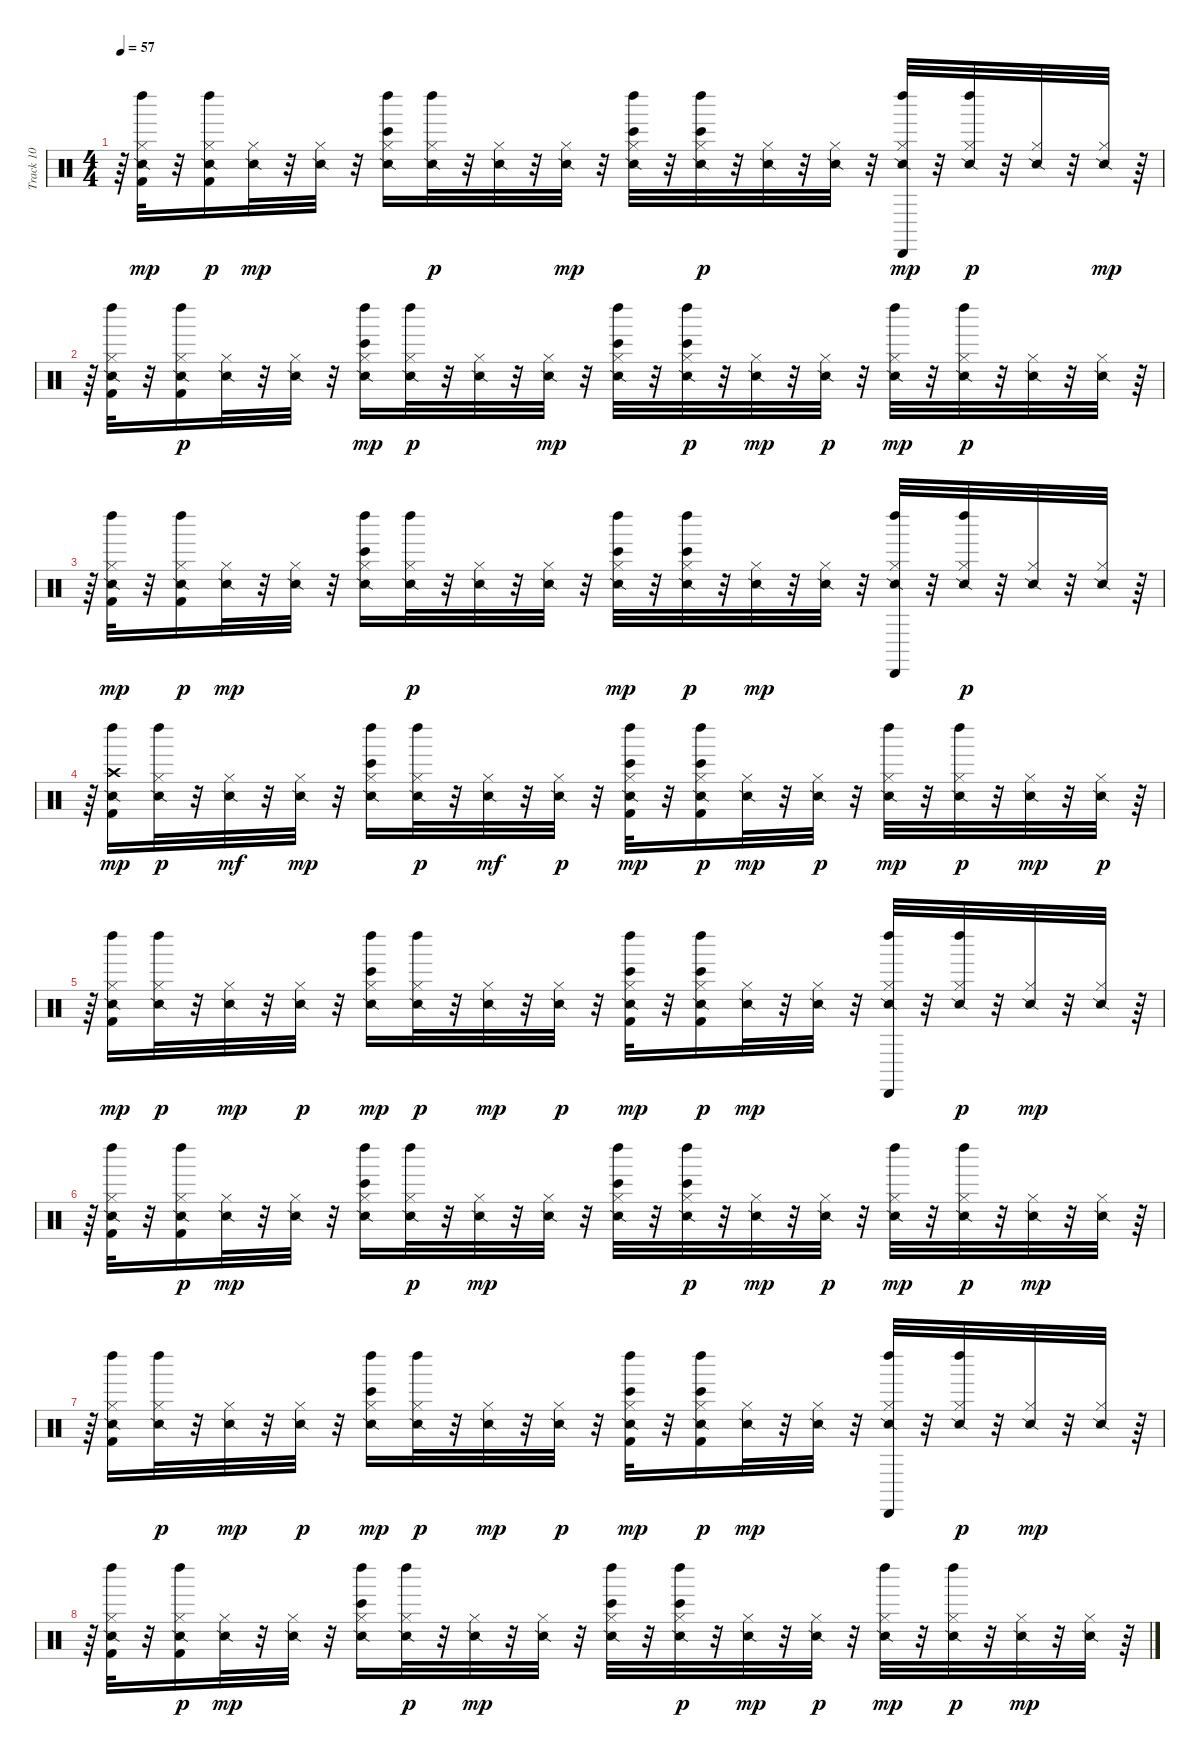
\track ("Track 10" "Track 10") {instrument percussion}
\staff {score}
\articulation defaults
\ts (4 4)
\tempo 57
\clef neutral
\ks c
r.64{dy mp} ("Snare (side stick) 2" "Kick (hit) 2" "Hi-Hat (closed)" "Left Maraca (hit)").32 r.32 ("Snare (side stick) 2" "Kick (hit) 2" "Hi-Hat (closed)" "Left Maraca (hit)").16{dy p} ("Snare (side stick) 2" "Hi-Hat (closed)").32{dy mp} r.32 ("Snare (side stick) 2" "Hi-Hat (closed)").32 r.32 ("Bongo High (hit)" "Snare (side stick) 2" "Hi-Hat (closed)" "Left Maraca (hit)").16 ("Snare (side stick) 2" "Hi-Hat (closed)" "Left Maraca (hit)").32{dy p} r.32 ("Snare (side stick) 2" "Hi-Hat (closed)").32 r.32 ("Snare (side stick) 2" "Hi-Hat (closed)").32{dy mp} r.32 ("Bongo High (hit)" "Snare (side stick) 2" "Hi-Hat (closed)" "Left Maraca (hit)").32 r.32 ("Bongo High (hit)" "Snare (side stick) 2" "Hi-Hat (closed)" "Left Maraca (hit)").32{dy p} r.32 ("Snare (side stick) 2" "Hi-Hat (closed)").32 r.32 ("Snare (side stick) 2" "Hi-Hat (closed)").32 r.32 ("Snare (side stick) 2" "Hi-Hat (closed)" "Left Maraca (hit)" "Cabasa (hit)").32{dy mp} r.32 ("Snare (side stick) 2" "Hi-Hat (closed)" "Left Maraca (hit)").32{dy p} r.32 ("Snare (side stick) 2" "Hi-Hat (closed)").32 r.32 ("Snare (side stick) 2" "Hi-Hat (closed)").32{dy mp} r.64 |
r.64 ("Snare (side stick) 2" "Kick (hit) 2" "Hi-Hat (closed)" "Left Maraca (hit)").32 r.32 ("Snare (side stick) 2" "Kick (hit) 2" "Hi-Hat (closed)" "Left Maraca (hit)").16{dy p} ("Snare (side stick) 2" "Hi-Hat (closed)").32 r.32 ("Snare (side stick) 2" "Hi-Hat (closed)").32 r.32 ("Bongo High (hit)" "Snare (side stick) 2" "Hi-Hat (closed)" "Left Maraca (hit)").16{dy mp} ("Snare (side stick) 2" "Hi-Hat (closed)" "Left Maraca (hit)").32{dy p} r.32 ("Snare (side stick) 2" "Hi-Hat (closed)").32 r.32 ("Snare (side stick) 2" "Hi-Hat (closed)").32{dy mp} r.32 ("Bongo High (hit)" "Snare (side stick) 2" "Hi-Hat (closed)" "Left Maraca (hit)").32 r.32 ("Bongo High (hit)" "Snare (side stick) 2" "Hi-Hat (closed)" "Left Maraca (hit)").32{dy p} r.32 ("Snare (side stick) 2" "Hi-Hat (closed)").32{dy mp} r.32 ("Snare (side stick) 2" "Hi-Hat (closed)").32{dy p} r.32 ("Snare (side stick) 2" "Hi-Hat (closed)" "Left Maraca (hit)").32{dy mp} r.32 ("Snare (side stick) 2" "Hi-Hat (closed)" "Left Maraca (hit)").32{dy p} r.32 ("Snare (side stick) 2" "Hi-Hat (closed)").32 r.32 ("Snare (side stick) 2" "Hi-Hat (closed)").32 r.64 |
r.64 ("Snare (side stick) 2" "Kick (hit) 2" "Hi-Hat (closed)" "Left Maraca (hit)").32{dy mp} r.32 ("Snare (side stick) 2" "Kick (hit) 2" "Hi-Hat (closed)" "Left Maraca (hit)").16{dy p} ("Snare (side stick) 2" "Hi-Hat (closed)").32{dy mp} r.32 ("Snare (side stick) 2" "Hi-Hat (closed)").32 r.32 ("Bongo High (hit)" "Snare (side stick) 2" "Hi-Hat (closed)" "Left Maraca (hit)").16 ("Snare (side stick) 2" "Hi-Hat (closed)" "Left Maraca (hit)").32{dy p} r.32 ("Snare (side stick) 2" "Hi-Hat (closed)").32 r.32 ("Snare (side stick) 2" "Hi-Hat (closed)").32 r.32 ("Bongo High (hit)" "Snare (side stick) 2" "Hi-Hat (closed)" "Left Maraca (hit)").32{dy mp} r.32 ("Bongo High (hit)" "Snare (side stick) 2" "Hi-Hat (closed)" "Left Maraca (hit)").32{dy p} r.32 ("Snare (side stick) 2" "Hi-Hat (closed)").32{dy mp} r.32 ("Snare (side stick) 2" "Hi-Hat (closed)").32 r.32 ("Snare (side stick) 2" "Hi-Hat (closed)" "Left Maraca (hit)" "Cabasa (hit)").32 r.32 ("Snare (side stick) 2" "Hi-Hat (closed)" "Left Maraca (hit)").32{dy p} r.32 ("Snare (side stick) 2" "Hi-Hat (closed)").32 r.32 ("Snare (side stick) 2" "Hi-Hat (closed)").32 r.64 |
r.64 ("Snare (side stick) 2" "Kick (hit) 2" "Crash high (hit)" "Left Maraca (hit)").16{dy mp} ("Snare (side stick) 2" "Hi-Hat (closed)" "Left Maraca (hit)").32{dy p} r.32 ("Snare (side stick) 2" "Hi-Hat (closed)").32{dy mf} r.32 ("Snare (side stick) 2" "Hi-Hat (closed)").32{dy mp} r.32 ("Bongo High (hit)" "Snare (side stick) 2" "Hi-Hat (closed)" "Left Maraca (hit)").16 ("Snare (side stick) 2" "Hi-Hat (closed)" "Left Maraca (hit)").32{dy p} r.32 ("Snare (side stick) 2" "Hi-Hat (closed)").32{dy mf} r.32 ("Snare (side stick) 2" "Hi-Hat (closed)").32{dy p} r.32 ("Bongo High (hit)" "Snare (side stick) 2" "Kick (hit) 2" "Hi-Hat (closed)" "Left Maraca (hit)").32{dy mp} r.32 ("Bongo High (hit)" "Snare (side stick) 2" "Kick (hit) 2" "Hi-Hat (closed)" "Left Maraca (hit)").16{dy p} ("Snare (side stick) 2" "Hi-Hat (closed)").32{dy mp} r.32 ("Snare (side stick) 2" "Hi-Hat (closed)").32{dy p} r.32 ("Snare (side stick) 2" "Hi-Hat (closed)" "Left Maraca (hit)").32{dy mp} r.32 ("Snare (side stick) 2" "Hi-Hat (closed)" "Left Maraca (hit)").32{dy p} r.32 ("Snare (side stick) 2" "Hi-Hat (closed)").32{dy mp} r.32 ("Snare (side stick) 2" "Hi-Hat (closed)").32{dy p} r.64 |
r.64 ("Snare (side stick) 2" "Kick (hit) 2" "Hi-Hat (closed)" "Left Maraca (hit)").16{dy mp} ("Snare (side stick) 2" "Hi-Hat (closed)" "Left Maraca (hit)").32{dy p} r.32 ("Snare (side stick) 2" "Hi-Hat (closed)").32{dy mp} r.32 ("Snare (side stick) 2" "Hi-Hat (closed)").32{dy p} r.32 ("Bongo High (hit)" "Snare (side stick) 2" "Hi-Hat (closed)" "Left Maraca (hit)").16{dy mp} ("Snare (side stick) 2" "Hi-Hat (closed)" "Left Maraca (hit)").32{dy p} r.32 ("Snare (side stick) 2" "Hi-Hat (closed)").32{dy mp} r.32 ("Snare (side stick) 2" "Hi-Hat (closed)").32{dy p} r.32 ("Bongo High (hit)" "Snare (side stick) 2" "Kick (hit) 2" "Hi-Hat (closed)" "Left Maraca (hit)").32{dy mp} r.32 ("Bongo High (hit)" "Snare (side stick) 2" "Kick (hit) 2" "Hi-Hat (closed)" "Left Maraca (hit)").16{dy p} ("Snare (side stick) 2" "Hi-Hat (closed)").32{dy mp} r.32 ("Snare (side stick) 2" "Hi-Hat (closed)").32 r.32 ("Snare (side stick) 2" "Hi-Hat (closed)" "Left Maraca (hit)" "Cabasa (hit)").32 r.32 ("Snare (side stick) 2" "Hi-Hat (closed)" "Left Maraca (hit)").32{dy p} r.32 ("Snare (side stick) 2" "Hi-Hat (closed)").32{dy mp} r.32 ("Snare (side stick) 2" "Hi-Hat (closed)").32 r.64 |
r.64 ("Snare (side stick) 2" "Kick (hit) 2" "Hi-Hat (closed)" "Left Maraca (hit)").32 r.32 ("Snare (side stick) 2" "Kick (hit) 2" "Hi-Hat (closed)" "Left Maraca (hit)").16{dy p} ("Snare (side stick) 2" "Hi-Hat (closed)").32{dy mp} r.32 ("Snare (side stick) 2" "Hi-Hat (closed)").32 r.32 ("Bongo High (hit)" "Snare (side stick) 2" "Hi-Hat (closed)" "Left Maraca (hit)").16 ("Snare (side stick) 2" "Hi-Hat (closed)" "Left Maraca (hit)").32{dy p} r.32 ("Snare (side stick) 2" "Hi-Hat (closed)").32{dy mp} r.32 ("Snare (side stick) 2" "Hi-Hat (closed)").32 r.32 ("Bongo High (hit)" "Snare (side stick) 2" "Hi-Hat (closed)" "Left Maraca (hit)").32 r.32 ("Bongo High (hit)" "Snare (side stick) 2" "Hi-Hat (closed)" "Left Maraca (hit)").32{dy p} r.32 ("Snare (side stick) 2" "Hi-Hat (closed)").32{dy mp} r.32 ("Snare (side stick) 2" "Hi-Hat (closed)").32{dy p} r.32 ("Snare (side stick) 2" "Hi-Hat (closed)" "Left Maraca (hit)").32{dy mp} r.32 ("Snare (side stick) 2" "Hi-Hat (closed)" "Left Maraca (hit)").32{dy p} r.32 ("Snare (side stick) 2" "Hi-Hat (closed)").32{dy mp} r.32 ("Snare (side stick) 2" "Hi-Hat (closed)").32 r.64 |
r.64 ("Snare (side stick) 2" "Kick (hit) 2" "Hi-Hat (closed)" "Left Maraca (hit)").16 ("Snare (side stick) 2" "Hi-Hat (closed)" "Left Maraca (hit)").32{dy p} r.32 ("Snare (side stick) 2" "Hi-Hat (closed)").32{dy mp} r.32 ("Snare (side stick) 2" "Hi-Hat (closed)").32{dy p} r.32 ("Bongo High (hit)" "Snare (side stick) 2" "Hi-Hat (closed)" "Left Maraca (hit)").16{dy mp} ("Snare (side stick) 2" "Hi-Hat (closed)" "Left Maraca (hit)").32{dy p} r.32 ("Snare (side stick) 2" "Hi-Hat (closed)").32{dy mp} r.32 ("Snare (side stick) 2" "Hi-Hat (closed)").32{dy p} r.32 ("Bongo High (hit)" "Snare (side stick) 2" "Kick (hit) 2" "Hi-Hat (closed)" "Left Maraca (hit)").32{dy mp} r.32 ("Bongo High (hit)" "Snare (side stick) 2" "Kick (hit) 2" "Hi-Hat (closed)" "Left Maraca (hit)").16{dy p} ("Snare (side stick) 2" "Hi-Hat (closed)").32{dy mp} r.32 ("Snare (side stick) 2" "Hi-Hat (closed)").32 r.32 ("Snare (side stick) 2" "Hi-Hat (closed)" "Left Maraca (hit)" "Cabasa (hit)").32 r.32 ("Snare (side stick) 2" "Hi-Hat (closed)" "Left Maraca (hit)").32{dy p} r.32 ("Snare (side stick) 2" "Hi-Hat (closed)").32{dy mp} r.32 ("Snare (side stick) 2" "Hi-Hat (closed)").32 r.64 |
r.64 ("Snare (side stick) 2" "Kick (hit) 2" "Hi-Hat (closed)" "Left Maraca (hit)").32 r.32 ("Snare (side stick) 2" "Kick (hit) 2" "Hi-Hat (closed)" "Left Maraca (hit)").16{dy p} ("Snare (side stick) 2" "Hi-Hat (closed)").32{dy mp} r.32 ("Snare (side stick) 2" "Hi-Hat (closed)").32 r.32 ("Bongo High (hit)" "Snare (side stick) 2" "Hi-Hat (closed)" "Left Maraca (hit)").16 ("Snare (side stick) 2" "Hi-Hat (closed)" "Left Maraca (hit)").32{dy p} r.32 ("Snare (side stick) 2" "Hi-Hat (closed)").32{dy mp} r.32 ("Snare (side stick) 2" "Hi-Hat (closed)").32 r.32 ("Bongo High (hit)" "Snare (side stick) 2" "Hi-Hat (closed)" "Left Maraca (hit)").32 r.32 ("Bongo High (hit)" "Snare (side stick) 2" "Hi-Hat (closed)" "Left Maraca (hit)").32{dy p} r.32 ("Snare (side stick) 2" "Hi-Hat (closed)").32{dy mp} r.32 ("Snare (side stick) 2" "Hi-Hat (closed)").32{dy p} r.32 ("Snare (side stick) 2" "Hi-Hat (closed)" "Left Maraca (hit)").32{dy mp} r.32 ("Snare (side stick) 2" "Hi-Hat (closed)" "Left Maraca (hit)").32{dy p} r.32 ("Snare (side stick) 2" "Hi-Hat (closed)").32{dy mp} r.32 ("Snare (side stick) 2" "Hi-Hat (closed)").32 r.64
